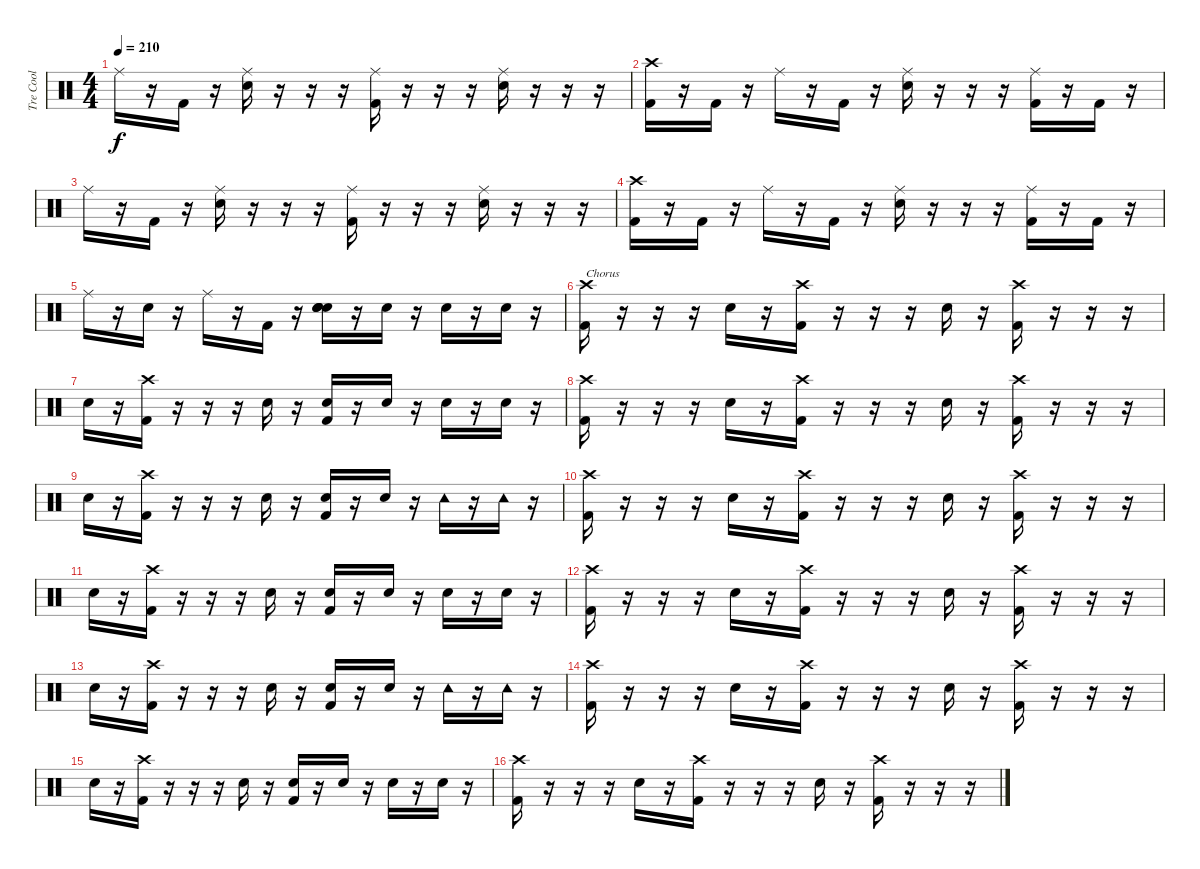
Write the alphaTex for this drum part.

\track ("Tre Cool" "Tre Cool") {instrument percussion}
\staff {score}
\articulation defaults
\ts (4 4)
\tempo 210
\clef neutral
\ks c "Ride (middle)".16{dy f}
r.16 "Kick (hit) 2".16 r.16 ("Ride (middle)" "Snare (hit) 2").16 r.16 r.16 r.16 ("Ride (middle)" "Kick (hit) 2").16 r.16 r.16 r.16 ("Ride (middle)" "Snare (hit) 2").16 r.16 r.16 r.16 |
("Crash high (hit)" "Kick (hit) 2").16 r.16 "Kick (hit) 2".16 r.16 "Ride (middle)".16 r.16 "Kick (hit) 2".16 r.16 ("Ride (middle)" "Snare (hit) 2").16 r.16 r.16 r.16 ("Ride (middle)" "Kick (hit) 2").16 r.16 "Kick (hit) 2".16 r.16 |
"Ride (middle)".16 r.16 "Kick (hit) 2".16 r.16 ("Ride (middle)" "Snare (hit) 2").16 r.16 r.16 r.16 ("Ride (middle)" "Kick (hit) 2").16 r.16 r.16 r.16 ("Ride (middle)" "Snare (hit) 2").16 r.16 r.16 r.16 |
("Crash high (hit)" "Kick (hit) 2").16 r.16 "Kick (hit) 2".16 r.16 "Ride (middle)".16 r.16 "Kick (hit) 2".16 r.16 ("Ride (middle)" "Snare (hit) 2").16 r.16 r.16 r.16 ("Ride (middle)" "Kick (hit) 2").16 r.16 "Kick (hit) 2".16 r.16 |
"Ride (middle)".16 r.16 "Snare (hit) 2".16 r.16 "Ride (middle)".16 r.16 "Kick (hit) 2".16 r.16 ("Snare (hit) 2" "Snare (hit) 2" "Snare (hit) 2" "Snare (hit) 2").16 r.16 "Snare (hit) 2".16 r.16 "Snare (hit) 2".16 r.16 "Snare (hit) 2".16 r.16 |
("Crash high (hit)" "Kick (hit) 2").16{txt "Chorus"} r.16 r.16 r.16 "Snare (hit) 2".16 r.16 ("Crash high (hit)" "Kick (hit) 2").16 r.16 r.16 r.16 "Snare (hit) 2".16 r.16 ("Crash high (hit)" "Kick (hit) 2").16 r.16 r.16 r.16 |
"Snare (hit) 2".16 r.16 ("Crash high (hit)" "Kick (hit) 2").16 r.16 r.16 r.16 "Snare (hit) 2".16 r.16 ("Snare (hit) 2" "Kick (hit) 2").16 r.16 "Snare (hit) 2".16 r.16 "Snare (hit) 2".16 r.16 "Snare (hit) 2".16 r.16 |
("Crash high (hit)" "Kick (hit) 2").16 r.16 r.16 r.16 "Snare (hit) 2".16 r.16 ("Crash high (hit)" "Kick (hit) 2").16 r.16 r.16 r.16 "Snare (hit) 2".16 r.16 ("Crash high (hit)" "Kick (hit) 2").16 r.16 r.16 r.16 |
"Snare (hit) 2".16 r.16 ("Crash high (hit)" "Kick (hit) 2").16 r.16 r.16 r.16 "Snare (hit) 2".16 r.16 ("Snare (hit) 2" "Kick (hit) 2").16 r.16 "Snare (hit) 2".16 r.16 "Tambourine (hit)".16 r.16 "Tambourine (hit)".16 r.16 |
("Crash high (hit)" "Kick (hit) 2").16 r.16 r.16 r.16 "Snare (hit) 2".16 r.16 ("Crash high (hit)" "Kick (hit) 2").16 r.16 r.16 r.16 "Snare (hit) 2".16 r.16 ("Crash high (hit)" "Kick (hit) 2").16 r.16 r.16 r.16 |
"Snare (hit) 2".16 r.16 ("Crash high (hit)" "Kick (hit) 2").16 r.16 r.16 r.16 "Snare (hit) 2".16 r.16 ("Snare (hit) 2" "Kick (hit) 2").16 r.16 "Snare (hit) 2".16 r.16 "Snare (hit) 2".16 r.16 "Snare (hit) 2".16 r.16 |
("Crash high (hit)" "Kick (hit) 2").16 r.16 r.16 r.16 "Snare (hit) 2".16 r.16 ("Crash high (hit)" "Kick (hit) 2").16 r.16 r.16 r.16 "Snare (hit) 2".16 r.16 ("Crash high (hit)" "Kick (hit) 2").16 r.16 r.16 r.16 |
"Snare (hit) 2".16 r.16 ("Crash high (hit)" "Kick (hit) 2").16 r.16 r.16 r.16 "Snare (hit) 2".16 r.16 ("Snare (hit) 2" "Kick (hit) 2").16 r.16 "Snare (hit) 2".16 r.16 "Tambourine (hit)".16 r.16 "Tambourine (hit)".16 r.16 |
("Crash high (hit)" "Kick (hit) 2").16 r.16 r.16 r.16 "Snare (hit) 2".16 r.16 ("Crash high (hit)" "Kick (hit) 2").16 r.16 r.16 r.16 "Snare (hit) 2".16 r.16 ("Crash high (hit)" "Kick (hit) 2").16 r.16 r.16 r.16 |
"Snare (hit) 2".16 r.16 ("Crash high (hit)" "Kick (hit) 2").16 r.16 r.16 r.16 "Snare (hit) 2".16 r.16 ("Snare (hit) 2" "Kick (hit) 2").16 r.16 "Snare (hit) 2".16 r.16 "Snare (hit) 2".16 r.16 "Snare (hit) 2".16 r.16 |
("Crash high (hit)" "Kick (hit) 2").16 r.16 r.16 r.16 "Snare (hit) 2".16 r.16 ("Crash high (hit)" "Kick (hit) 2").16 r.16 r.16 r.16 "Snare (hit) 2".16 r.16 ("Crash high (hit)" "Kick (hit) 2").16 r.16 r.16 r.16
